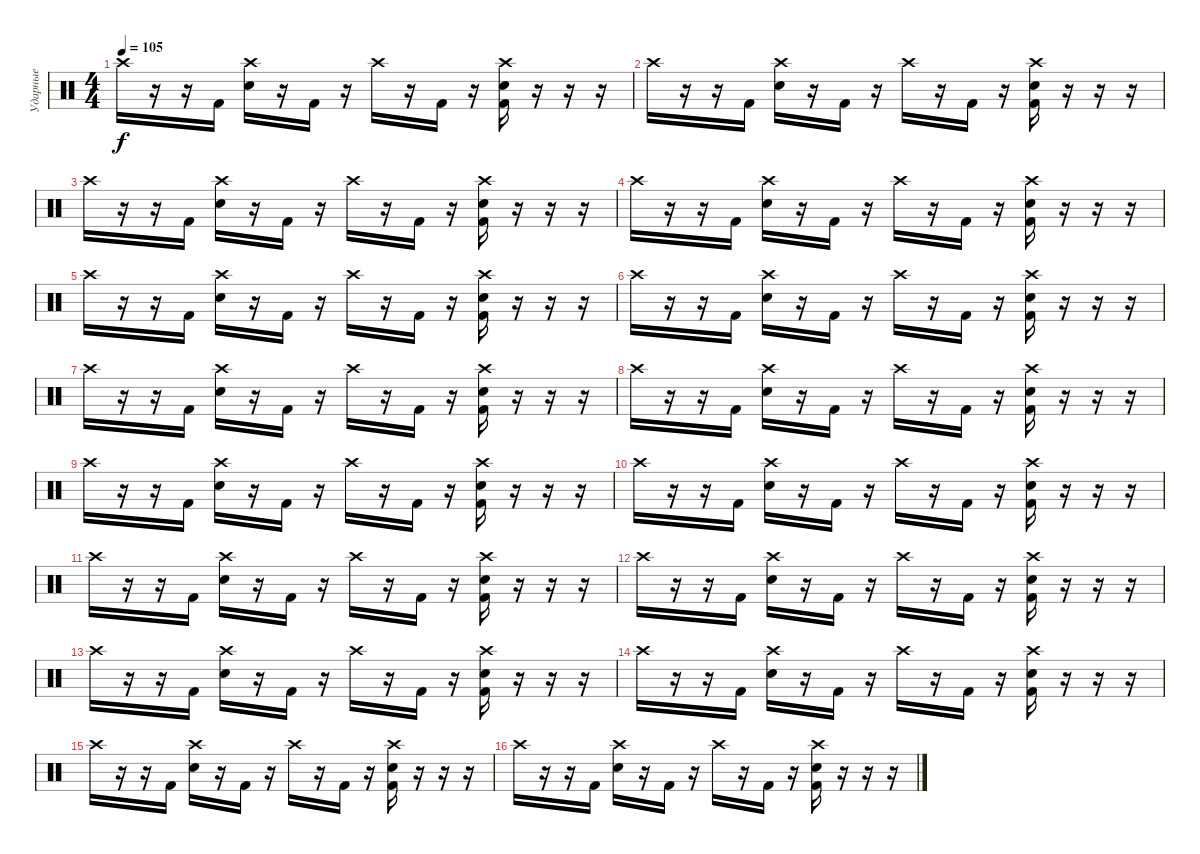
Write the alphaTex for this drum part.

\track ("Ударные" "Ударные") {instrument percussion}
\staff {score}
\articulation defaults
\ts (4 4)
\tempo 105
\clef neutral
\ks c "Crash high (hit)".16{dy f}
r.16 r.16 "Kick (hit) 2".16 ("Crash high (hit)" "Snare (hit) 2").16 r.16 "Kick (hit) 2".16 r.16 "Crash high (hit)".16 r.16 "Kick (hit) 2".16 r.16 ("Crash high (hit)" "Snare (hit) 2" "Kick (hit) 2").16 r.16 r.16 r.16 |
"Crash high (hit)".16 r.16 r.16 "Kick (hit) 2".16 ("Crash high (hit)" "Snare (hit) 2").16 r.16 "Kick (hit) 2".16 r.16 "Crash high (hit)".16 r.16 "Kick (hit) 2".16 r.16 ("Crash high (hit)" "Snare (hit) 2" "Kick (hit) 2").16 r.16 r.16 r.16 |
"Crash high (hit)".16 r.16 r.16 "Kick (hit) 2".16 ("Crash high (hit)" "Snare (hit) 2").16 r.16 "Kick (hit) 2".16 r.16 "Crash high (hit)".16 r.16 "Kick (hit) 2".16 r.16 ("Crash high (hit)" "Snare (hit) 2" "Kick (hit) 2").16 r.16 r.16 r.16 |
"Crash high (hit)".16 r.16 r.16 "Kick (hit) 2".16 ("Crash high (hit)" "Snare (hit) 2").16 r.16 "Kick (hit) 2".16 r.16 "Crash high (hit)".16 r.16 "Kick (hit) 2".16 r.16 ("Crash high (hit)" "Snare (hit) 2" "Kick (hit) 2").16 r.16 r.16 r.16 |
"Crash high (hit)".16 r.16 r.16 "Kick (hit) 2".16 ("Crash high (hit)" "Snare (hit) 2").16 r.16 "Kick (hit) 2".16 r.16 "Crash high (hit)".16 r.16 "Kick (hit) 2".16 r.16 ("Crash high (hit)" "Snare (hit) 2" "Kick (hit) 2").16 r.16 r.16 r.16 |
"Crash high (hit)".16 r.16 r.16 "Kick (hit) 2".16 ("Crash high (hit)" "Snare (hit) 2").16 r.16 "Kick (hit) 2".16 r.16 "Crash high (hit)".16 r.16 "Kick (hit) 2".16 r.16 ("Crash high (hit)" "Snare (hit) 2" "Kick (hit) 2").16 r.16 r.16 r.16 |
"Crash high (hit)".16 r.16 r.16 "Kick (hit) 2".16 ("Crash high (hit)" "Snare (hit) 2").16 r.16 "Kick (hit) 2".16 r.16 "Crash high (hit)".16 r.16 "Kick (hit) 2".16 r.16 ("Crash high (hit)" "Snare (hit) 2" "Kick (hit) 2").16 r.16 r.16 r.16 |
"Crash high (hit)".16 r.16 r.16 "Kick (hit) 2".16 ("Crash high (hit)" "Snare (hit) 2").16 r.16 "Kick (hit) 2".16 r.16 "Crash high (hit)".16 r.16 "Kick (hit) 2".16 r.16 ("Crash high (hit)" "Snare (hit) 2" "Kick (hit) 2").16 r.16 r.16 r.16 |
"Crash high (hit)".16 r.16 r.16 "Kick (hit) 2".16 ("Crash high (hit)" "Snare (hit) 2").16 r.16 "Kick (hit) 2".16 r.16 "Crash high (hit)".16 r.16 "Kick (hit) 2".16 r.16 ("Crash high (hit)" "Snare (hit) 2" "Kick (hit) 2").16 r.16 r.16 r.16 |
"Crash high (hit)".16 r.16 r.16 "Kick (hit) 2".16 ("Crash high (hit)" "Snare (hit) 2").16 r.16 "Kick (hit) 2".16 r.16 "Crash high (hit)".16 r.16 "Kick (hit) 2".16 r.16 ("Crash high (hit)" "Snare (hit) 2" "Kick (hit) 2").16 r.16 r.16 r.16 |
"Crash high (hit)".16 r.16 r.16 "Kick (hit) 2".16 ("Crash high (hit)" "Snare (hit) 2").16 r.16 "Kick (hit) 2".16 r.16 "Crash high (hit)".16 r.16 "Kick (hit) 2".16 r.16 ("Crash high (hit)" "Snare (hit) 2" "Kick (hit) 2").16 r.16 r.16 r.16 |
"Crash high (hit)".16 r.16 r.16 "Kick (hit) 2".16 ("Crash high (hit)" "Snare (hit) 2").16 r.16 "Kick (hit) 2".16 r.16 "Crash high (hit)".16 r.16 "Kick (hit) 2".16 r.16 ("Crash high (hit)" "Snare (hit) 2" "Kick (hit) 2").16 r.16 r.16 r.16 |
"Crash high (hit)".16 r.16 r.16 "Kick (hit) 2".16 ("Crash high (hit)" "Snare (hit) 2").16 r.16 "Kick (hit) 2".16 r.16 "Crash high (hit)".16 r.16 "Kick (hit) 2".16 r.16 ("Crash high (hit)" "Snare (hit) 2" "Kick (hit) 2").16 r.16 r.16 r.16 |
"Crash high (hit)".16 r.16 r.16 "Kick (hit) 2".16 ("Crash high (hit)" "Snare (hit) 2").16 r.16 "Kick (hit) 2".16 r.16 "Crash high (hit)".16 r.16 "Kick (hit) 2".16 r.16 ("Crash high (hit)" "Snare (hit) 2" "Kick (hit) 2").16 r.16 r.16 r.16 |
"Crash high (hit)".16 r.16 r.16 "Kick (hit) 2".16 ("Crash high (hit)" "Snare (hit) 2").16 r.16 "Kick (hit) 2".16 r.16 "Crash high (hit)".16 r.16 "Kick (hit) 2".16 r.16 ("Crash high (hit)" "Snare (hit) 2" "Kick (hit) 2").16 r.16 r.16 r.16 |
"Crash high (hit)".16 r.16 r.16 "Kick (hit) 2".16 ("Crash high (hit)" "Snare (hit) 2").16 r.16 "Kick (hit) 2".16 r.16 "Crash high (hit)".16 r.16 "Kick (hit) 2".16 r.16 ("Crash high (hit)" "Snare (hit) 2" "Kick (hit) 2").16 r.16 r.16 r.16
